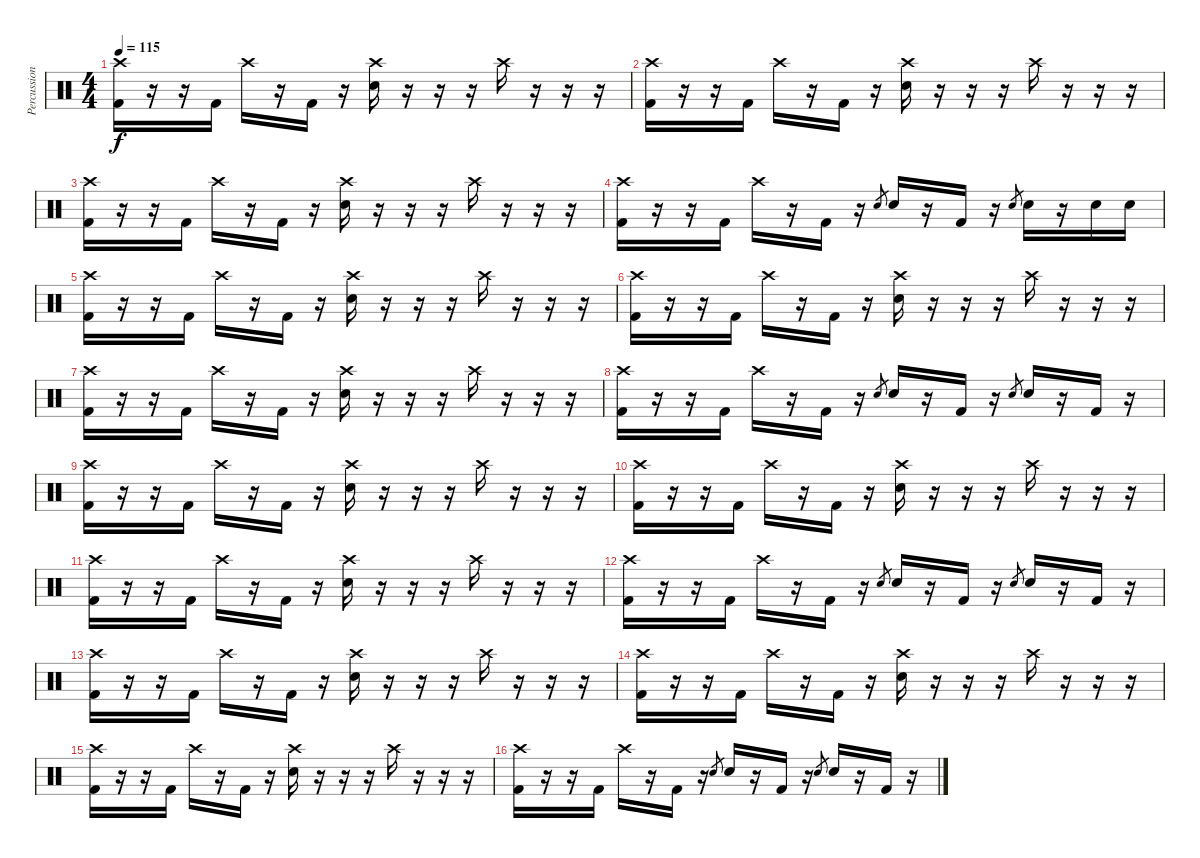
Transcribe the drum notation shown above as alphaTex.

\track ("Percussion" "Percussion") {instrument percussion}
\staff {score}
\articulation defaults
\ts (4 4)
\tempo 115
\clef neutral
\ks c
("Crash high (hit)" "Kick (hit) 2").16{dy f} r.16 r.16 "Kick (hit) 2".16 "Crash high (hit)".16 r.16 "Kick (hit) 2".16 r.16 ("Crash high (hit)" "Electric Snare (hit)").16 r.16 r.16 r.16 "Crash high (hit)".16 r.16 r.16 r.16 |
("Crash high (hit)" "Kick (hit) 2").16 r.16 r.16 "Kick (hit) 2".16 "Crash high (hit)".16 r.16 "Kick (hit) 2".16 r.16 ("Crash high (hit)" "Electric Snare (hit)").16 r.16 r.16 r.16 "Crash high (hit)".16 r.16 r.16 r.16 |
("Crash high (hit)" "Kick (hit) 2").16 r.16 r.16 "Kick (hit) 2".16 "Crash high (hit)".16 r.16 "Kick (hit) 2".16 r.16 ("Crash high (hit)" "Electric Snare (hit)").16 r.16 r.16 r.16 "Crash high (hit)".16 r.16 r.16 r.16 |
("Crash high (hit)" "Kick (hit) 2").16 r.16 r.16 "Kick (hit) 2".16 "Crash high (hit)".16 r.16 "Kick (hit) 2".16 r.16 "Electric Snare (hit)".8{gr} "Electric Snare (hit)".16 r.16 "Kick (hit) 2".16 r.16 "Electric Snare (hit)".8{gr} "Electric Snare (hit)".16 r.16 "Electric Snare (hit)".16 "Electric Snare (hit)".16 |
("Crash high (hit)" "Kick (hit) 2").16 r.16 r.16 "Kick (hit) 2".16 "Crash high (hit)".16 r.16 "Kick (hit) 2".16 r.16 ("Crash high (hit)" "Electric Snare (hit)").16 r.16 r.16 r.16 "Crash high (hit)".16 r.16 r.16 r.16 |
("Crash high (hit)" "Kick (hit) 2").16 r.16 r.16 "Kick (hit) 2".16 "Crash high (hit)".16 r.16 "Kick (hit) 2".16 r.16 ("Crash high (hit)" "Electric Snare (hit)").16 r.16 r.16 r.16 "Crash high (hit)".16 r.16 r.16 r.16 |
("Crash high (hit)" "Kick (hit) 2").16 r.16 r.16 "Kick (hit) 2".16 "Crash high (hit)".16 r.16 "Kick (hit) 2".16 r.16 ("Crash high (hit)" "Electric Snare (hit)").16 r.16 r.16 r.16 "Crash high (hit)".16 r.16 r.16 r.16 |
("Crash high (hit)" "Kick (hit) 2").16 r.16 r.16 "Kick (hit) 2".16 "Crash high (hit)".16 r.16 "Kick (hit) 2".16 r.16 "Electric Snare (hit)".8{gr} "Electric Snare (hit)".16 r.16 "Kick (hit) 2".16 r.16 "Electric Snare (hit)".8{gr} "Electric Snare (hit)".16 r.16 "Kick (hit) 2".16 r.16 |
("Crash high (hit)" "Kick (hit) 2").16 r.16 r.16 "Kick (hit) 2".16 "Crash high (hit)".16 r.16 "Kick (hit) 2".16 r.16 ("Crash high (hit)" "Electric Snare (hit)").16 r.16 r.16 r.16 "Crash high (hit)".16 r.16 r.16 r.16 |
("Crash high (hit)" "Kick (hit) 2").16 r.16 r.16 "Kick (hit) 2".16 "Crash high (hit)".16 r.16 "Kick (hit) 2".16 r.16 ("Crash high (hit)" "Electric Snare (hit)").16 r.16 r.16 r.16 "Crash high (hit)".16 r.16 r.16 r.16 |
("Crash high (hit)" "Kick (hit) 2").16 r.16 r.16 "Kick (hit) 2".16 "Crash high (hit)".16 r.16 "Kick (hit) 2".16 r.16 ("Crash high (hit)" "Electric Snare (hit)").16 r.16 r.16 r.16 "Crash high (hit)".16 r.16 r.16 r.16 |
("Crash high (hit)" "Kick (hit) 2").16 r.16 r.16 "Kick (hit) 2".16 "Crash high (hit)".16 r.16 "Kick (hit) 2".16 r.16 "Electric Snare (hit)".8{gr} "Electric Snare (hit)".16 r.16 "Kick (hit) 2".16 r.16 "Electric Snare (hit)".8{gr} "Electric Snare (hit)".16 r.16 "Kick (hit) 2".16 r.16 |
("Crash high (hit)" "Kick (hit) 2").16 r.16 r.16 "Kick (hit) 2".16 "Crash high (hit)".16 r.16 "Kick (hit) 2".16 r.16 ("Crash high (hit)" "Electric Snare (hit)").16 r.16 r.16 r.16 "Crash high (hit)".16 r.16 r.16 r.16 |
("Crash high (hit)" "Kick (hit) 2").16 r.16 r.16 "Kick (hit) 2".16 "Crash high (hit)".16 r.16 "Kick (hit) 2".16 r.16 ("Crash high (hit)" "Electric Snare (hit)").16 r.16 r.16 r.16 "Crash high (hit)".16 r.16 r.16 r.16 |
("Crash high (hit)" "Kick (hit) 2").16 r.16 r.16 "Kick (hit) 2".16 "Crash high (hit)".16 r.16 "Kick (hit) 2".16 r.16 ("Crash high (hit)" "Electric Snare (hit)").16 r.16 r.16 r.16 "Crash high (hit)".16 r.16 r.16 r.16 |
("Crash high (hit)" "Kick (hit) 2").16 r.16 r.16 "Kick (hit) 2".16 "Crash high (hit)".16 r.16 "Kick (hit) 2".16 r.16 "Electric Snare (hit)".8{gr} "Electric Snare (hit)".16 r.16 "Kick (hit) 2".16 r.16 "Electric Snare (hit)".8{gr} "Electric Snare (hit)".16 r.16 "Kick (hit) 2".16 r.16
